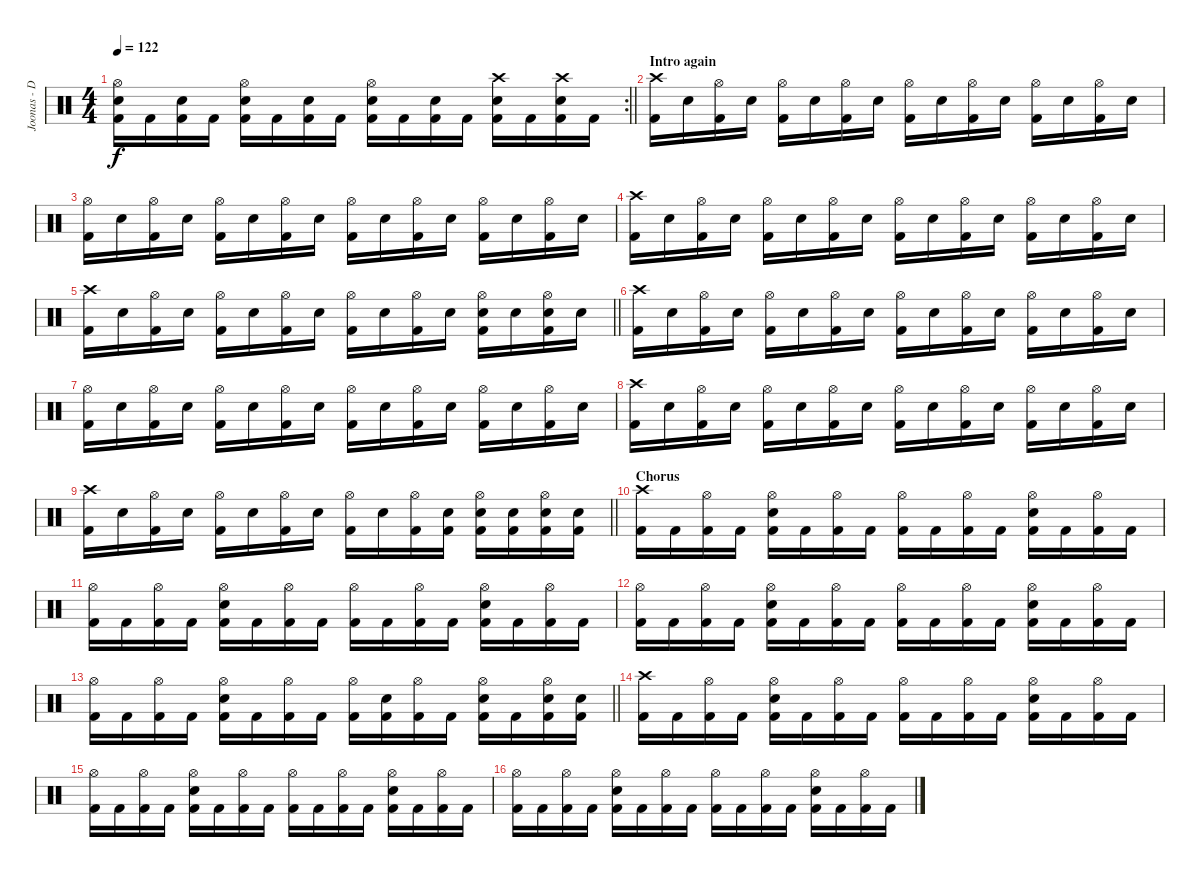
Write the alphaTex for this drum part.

\track ("Joonas - Drums" "Joonas - D") {instrument percussion}
\staff {score}
\articulation defaults
\rc 2
\ts (4 4)
\tempo 122
\clef neutral
\barLineRight lightlight
\ks c
("Hi-Hat (open)" "Electric Snare (hit)" "Kick (hit) 2").16{dy f} "Kick (hit) 2".16 ("Electric Snare (hit)" "Kick (hit) 2").16 "Kick (hit) 2".16 ("Hi-Hat (open)" "Electric Snare (hit)" "Kick (hit) 2").16 "Kick (hit) 2".16 ("Electric Snare (hit)" "Kick (hit) 2").16 "Kick (hit) 2".16 ("Hi-Hat (open)" "Electric Snare (hit)" "Kick (hit) 2").16 "Kick (hit) 2".16 ("Electric Snare (hit)" "Kick (hit) 2").16 "Kick (hit) 2".16 ("Crash high (hit)" "Electric Snare (hit)" "Kick (hit) 2").16 "Kick (hit) 2".16 ("Crash high (hit)" "Electric Snare (hit)" "Kick (hit) 2").16 "Kick (hit) 2".16 |
\section ("" "Intro again")
("Crash high (hit)" "Kick (hit) 2").16 "Electric Snare (hit)".16 ("Hi-Hat (open)" "Kick (hit) 2").16 "Electric Snare (hit)".16 ("Hi-Hat (open)" "Kick (hit) 2").16 "Electric Snare (hit)".16 ("Hi-Hat (open)" "Kick (hit) 2").16 "Electric Snare (hit)".16 ("Hi-Hat (open)" "Kick (hit) 2").16 "Electric Snare (hit)".16 ("Hi-Hat (open)" "Kick (hit) 2").16 "Electric Snare (hit)".16 ("Hi-Hat (open)" "Kick (hit) 2").16 "Electric Snare (hit)".16 ("Hi-Hat (open)" "Kick (hit) 2").16 "Electric Snare (hit)".16 |
("Hi-Hat (open)" "Kick (hit) 2").16 "Electric Snare (hit)".16 ("Hi-Hat (open)" "Kick (hit) 2").16 "Electric Snare (hit)".16 ("Hi-Hat (open)" "Kick (hit) 2").16 "Electric Snare (hit)".16 ("Hi-Hat (open)" "Kick (hit) 2").16 "Electric Snare (hit)".16 ("Hi-Hat (open)" "Kick (hit) 2").16 "Electric Snare (hit)".16 ("Hi-Hat (open)" "Kick (hit) 2").16 "Electric Snare (hit)".16 ("Hi-Hat (open)" "Kick (hit) 2").16 "Electric Snare (hit)".16 ("Hi-Hat (open)" "Kick (hit) 2").16 "Electric Snare (hit)".16 |
("Crash high (hit)" "Kick (hit) 2").16 "Electric Snare (hit)".16 ("Hi-Hat (open)" "Kick (hit) 2").16 "Electric Snare (hit)".16 ("Hi-Hat (open)" "Kick (hit) 2").16 "Electric Snare (hit)".16 ("Hi-Hat (open)" "Kick (hit) 2").16 "Electric Snare (hit)".16 ("Hi-Hat (open)" "Kick (hit) 2").16 "Electric Snare (hit)".16 ("Hi-Hat (open)" "Kick (hit) 2").16 "Electric Snare (hit)".16 ("Hi-Hat (open)" "Kick (hit) 2").16 "Electric Snare (hit)".16 ("Hi-Hat (open)" "Kick (hit) 2").16 "Electric Snare (hit)".16 |
\barLineRight lightlight
("Crash high (hit)" "Kick (hit) 2").16 "Electric Snare (hit)".16 ("Hi-Hat (open)" "Kick (hit) 2").16 "Electric Snare (hit)".16 ("Hi-Hat (open)" "Kick (hit) 2").16 "Electric Snare (hit)".16 ("Hi-Hat (open)" "Kick (hit) 2").16 "Electric Snare (hit)".16 ("Hi-Hat (open)" "Kick (hit) 2").16 "Electric Snare (hit)".16 ("Hi-Hat (open)" "Kick (hit) 2").16 "Electric Snare (hit)".16 ("Hi-Hat (open)" "Electric Snare (hit)" "Kick (hit) 2").16 "Electric Snare (hit)".16 ("Hi-Hat (open)" "Electric Snare (hit)" "Kick (hit) 2").16 "Electric Snare (hit)".16 |
("Crash high (hit)" "Kick (hit) 2").16 "Electric Snare (hit)".16 ("Hi-Hat (open)" "Kick (hit) 2").16 "Electric Snare (hit)".16 ("Hi-Hat (open)" "Kick (hit) 2").16 "Electric Snare (hit)".16 ("Hi-Hat (open)" "Kick (hit) 2").16 "Electric Snare (hit)".16 ("Hi-Hat (open)" "Kick (hit) 2").16 "Electric Snare (hit)".16 ("Hi-Hat (open)" "Kick (hit) 2").16 "Electric Snare (hit)".16 ("Hi-Hat (open)" "Kick (hit) 2").16 "Electric Snare (hit)".16 ("Hi-Hat (open)" "Kick (hit) 2").16 "Electric Snare (hit)".16 |
("Hi-Hat (open)" "Kick (hit) 2").16 "Electric Snare (hit)".16 ("Hi-Hat (open)" "Kick (hit) 2").16 "Electric Snare (hit)".16 ("Hi-Hat (open)" "Kick (hit) 2").16 "Electric Snare (hit)".16 ("Hi-Hat (open)" "Kick (hit) 2").16 "Electric Snare (hit)".16 ("Hi-Hat (open)" "Kick (hit) 2").16 "Electric Snare (hit)".16 ("Hi-Hat (open)" "Kick (hit) 2").16 "Electric Snare (hit)".16 ("Hi-Hat (open)" "Kick (hit) 2").16 "Electric Snare (hit)".16 ("Hi-Hat (open)" "Kick (hit) 2").16 "Electric Snare (hit)".16 |
("Crash high (hit)" "Kick (hit) 2").16 "Electric Snare (hit)".16 ("Hi-Hat (open)" "Kick (hit) 2").16 "Electric Snare (hit)".16 ("Hi-Hat (open)" "Kick (hit) 2").16 "Electric Snare (hit)".16 ("Hi-Hat (open)" "Kick (hit) 2").16 "Electric Snare (hit)".16 ("Hi-Hat (open)" "Kick (hit) 2").16 "Electric Snare (hit)".16 ("Hi-Hat (open)" "Kick (hit) 2").16 "Electric Snare (hit)".16 ("Hi-Hat (open)" "Kick (hit) 2").16 "Electric Snare (hit)".16 ("Hi-Hat (open)" "Kick (hit) 2").16 "Electric Snare (hit)".16 |
\barLineRight lightlight
("Crash high (hit)" "Kick (hit) 2").16 "Electric Snare (hit)".16 ("Hi-Hat (open)" "Kick (hit) 2").16 "Electric Snare (hit)".16 ("Hi-Hat (open)" "Kick (hit) 2").16 "Electric Snare (hit)".16 ("Hi-Hat (open)" "Kick (hit) 2").16 "Electric Snare (hit)".16 ("Hi-Hat (open)" "Kick (hit) 2").16 "Electric Snare (hit)".16 ("Hi-Hat (open)" "Kick (hit) 2").16 ("Electric Snare (hit)" "Kick (hit) 2").16 ("Hi-Hat (open)" "Electric Snare (hit)" "Kick (hit) 2").16 ("Electric Snare (hit)" "Kick (hit) 2").16 ("Hi-Hat (open)" "Electric Snare (hit)" "Kick (hit) 2").16 ("Electric Snare (hit)" "Kick (hit) 2").16 |
\section ("" "Chorus")
("Crash high (hit)" "Kick (hit) 2").16 "Kick (hit) 2".16 ("Hi-Hat (open)" "Kick (hit) 2").16 "Kick (hit) 2".16 ("Hi-Hat (open)" "Electric Snare (hit)" "Kick (hit) 2").16 "Kick (hit) 2".16 ("Hi-Hat (open)" "Kick (hit) 2").16 "Kick (hit) 2".16 ("Hi-Hat (open)" "Kick (hit) 2").16 "Kick (hit) 2".16 ("Hi-Hat (open)" "Kick (hit) 2").16 "Kick (hit) 2".16 ("Hi-Hat (open)" "Electric Snare (hit)" "Kick (hit) 2").16 "Kick (hit) 2".16 ("Hi-Hat (open)" "Kick (hit) 2").16 "Kick (hit) 2".16 |
("Hi-Hat (open)" "Kick (hit) 2").16 "Kick (hit) 2".16 ("Hi-Hat (open)" "Kick (hit) 2").16 "Kick (hit) 2".16 ("Hi-Hat (open)" "Electric Snare (hit)" "Kick (hit) 2").16 "Kick (hit) 2".16 ("Hi-Hat (open)" "Kick (hit) 2").16 "Kick (hit) 2".16 ("Hi-Hat (open)" "Kick (hit) 2").16 "Kick (hit) 2".16 ("Hi-Hat (open)" "Kick (hit) 2").16 "Kick (hit) 2".16 ("Hi-Hat (open)" "Electric Snare (hit)" "Kick (hit) 2").16 "Kick (hit) 2".16 ("Hi-Hat (open)" "Kick (hit) 2").16 "Kick (hit) 2".16 |
("Hi-Hat (open)" "Kick (hit) 2").16 "Kick (hit) 2".16 ("Hi-Hat (open)" "Kick (hit) 2").16 "Kick (hit) 2".16 ("Hi-Hat (open)" "Electric Snare (hit)" "Kick (hit) 2").16 "Kick (hit) 2".16 ("Hi-Hat (open)" "Kick (hit) 2").16 "Kick (hit) 2".16 ("Hi-Hat (open)" "Kick (hit) 2").16 "Kick (hit) 2".16 ("Hi-Hat (open)" "Kick (hit) 2").16 "Kick (hit) 2".16 ("Hi-Hat (open)" "Electric Snare (hit)" "Kick (hit) 2").16 "Kick (hit) 2".16 ("Hi-Hat (open)" "Kick (hit) 2").16 "Kick (hit) 2".16 |
\barLineRight lightlight
("Hi-Hat (open)" "Kick (hit) 2").16 "Kick (hit) 2".16 ("Hi-Hat (open)" "Kick (hit) 2").16 "Kick (hit) 2".16 ("Hi-Hat (open)" "Electric Snare (hit)" "Kick (hit) 2").16 "Kick (hit) 2".16 ("Hi-Hat (open)" "Kick (hit) 2").16 "Kick (hit) 2".16 ("Hi-Hat (open)" "Kick (hit) 2").16 ("Electric Snare (hit)" "Kick (hit) 2").16 ("Hi-Hat (open)" "Kick (hit) 2").16 "Kick (hit) 2".16 ("Hi-Hat (open)" "Electric Snare (hit)" "Kick (hit) 2").16 "Kick (hit) 2".16 ("Hi-Hat (open)" "Electric Snare (hit)" "Kick (hit) 2").16 ("Electric Snare (hit)" "Kick (hit) 2").16 |
("Crash high (hit)" "Kick (hit) 2").16 "Kick (hit) 2".16 ("Hi-Hat (open)" "Kick (hit) 2").16 "Kick (hit) 2".16 ("Hi-Hat (open)" "Electric Snare (hit)" "Kick (hit) 2").16 "Kick (hit) 2".16 ("Hi-Hat (open)" "Kick (hit) 2").16 "Kick (hit) 2".16 ("Hi-Hat (open)" "Kick (hit) 2").16 "Kick (hit) 2".16 ("Hi-Hat (open)" "Kick (hit) 2").16 "Kick (hit) 2".16 ("Hi-Hat (open)" "Electric Snare (hit)" "Kick (hit) 2").16 "Kick (hit) 2".16 ("Hi-Hat (open)" "Kick (hit) 2").16 "Kick (hit) 2".16 |
("Hi-Hat (open)" "Kick (hit) 2").16 "Kick (hit) 2".16 ("Hi-Hat (open)" "Kick (hit) 2").16 "Kick (hit) 2".16 ("Hi-Hat (open)" "Electric Snare (hit)" "Kick (hit) 2").16 "Kick (hit) 2".16 ("Hi-Hat (open)" "Kick (hit) 2").16 "Kick (hit) 2".16 ("Hi-Hat (open)" "Kick (hit) 2").16 "Kick (hit) 2".16 ("Hi-Hat (open)" "Kick (hit) 2").16 "Kick (hit) 2".16 ("Hi-Hat (open)" "Electric Snare (hit)" "Kick (hit) 2").16 "Kick (hit) 2".16 ("Hi-Hat (open)" "Kick (hit) 2").16 "Kick (hit) 2".16 |
("Hi-Hat (open)" "Kick (hit) 2").16 "Kick (hit) 2".16 ("Hi-Hat (open)" "Kick (hit) 2").16 "Kick (hit) 2".16 ("Hi-Hat (open)" "Electric Snare (hit)" "Kick (hit) 2").16 "Kick (hit) 2".16 ("Hi-Hat (open)" "Kick (hit) 2").16 "Kick (hit) 2".16 ("Hi-Hat (open)" "Kick (hit) 2").16 "Kick (hit) 2".16 ("Hi-Hat (open)" "Kick (hit) 2").16 "Kick (hit) 2".16 ("Hi-Hat (open)" "Electric Snare (hit)" "Kick (hit) 2").16 "Kick (hit) 2".16 ("Hi-Hat (open)" "Kick (hit) 2").16 "Kick (hit) 2".16
